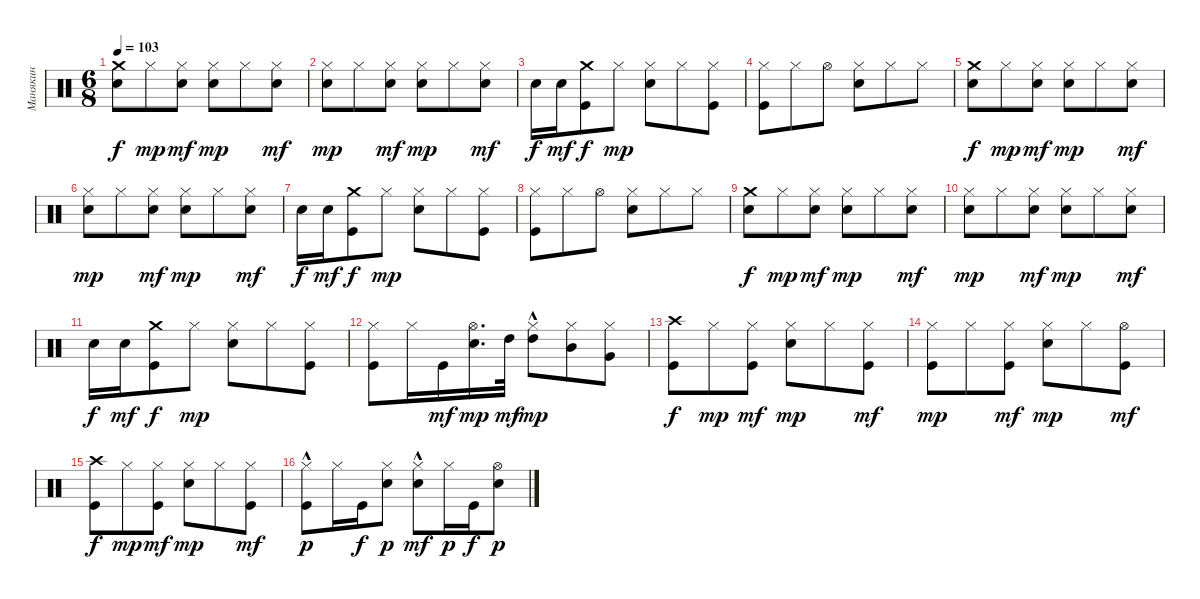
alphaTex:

\track ("Манякин" "Манякин") {instrument percussion}
\staff {score}
\articulation defaults
\ts (6 8)
\tempo 103
\clef neutral
\ks c
("Crash medium (hit)" "Electric Snare (hit)").8{dy f} "Hi-Hat (closed)".8{dy mp} ("Hi-Hat (closed)" "Electric Snare (hit)").8{dy mf} ("Hi-Hat (closed)" "Electric Snare (hit)").8{dy mp} "Hi-Hat (closed)".8 ("Hi-Hat (closed)" "Electric Snare (hit)").8{dy mf} |
("Hi-Hat (closed)" "Electric Snare (hit)").8{dy mp} "Hi-Hat (closed)".8 ("Hi-Hat (closed)" "Electric Snare (hit)").8{dy mf} ("Hi-Hat (closed)" "Electric Snare (hit)").8{dy mp} "Hi-Hat (closed)".8 ("Hi-Hat (closed)" "Electric Snare (hit)").8{dy mf} |
"Electric Snare (hit)".16{dy f} "Electric Snare (hit)".16{dy mf} ("Crash medium (hit)" "Kick (hit)").8{dy f} "Hi-Hat (closed)".8{dy mp} ("Hi-Hat (closed)" "Electric Snare (hit)").8 "Hi-Hat (closed)".8 ("Hi-Hat (closed)" "Kick (hit)").8 |
("Hi-Hat (closed)" "Kick (hit)").8 "Hi-Hat (closed)".8 "Hi-Hat (open)".8 ("Hi-Hat (closed)" "Electric Snare (hit)").8 "Hi-Hat (closed)".8 "Hi-Hat (closed)".8 |
("Crash medium (hit)" "Electric Snare (hit)").8{dy f} "Hi-Hat (closed)".8{dy mp} ("Hi-Hat (closed)" "Electric Snare (hit)").8{dy mf} ("Hi-Hat (closed)" "Electric Snare (hit)").8{dy mp} "Hi-Hat (closed)".8 ("Hi-Hat (closed)" "Electric Snare (hit)").8{dy mf} |
("Hi-Hat (closed)" "Electric Snare (hit)").8{dy mp} "Hi-Hat (closed)".8 ("Hi-Hat (closed)" "Electric Snare (hit)").8{dy mf} ("Hi-Hat (closed)" "Electric Snare (hit)").8{dy mp} "Hi-Hat (closed)".8 ("Hi-Hat (closed)" "Electric Snare (hit)").8{dy mf} |
"Electric Snare (hit)".16{dy f} "Electric Snare (hit)".16{dy mf} ("Crash medium (hit)" "Kick (hit)").8{dy f} "Hi-Hat (closed)".8{dy mp} ("Hi-Hat (closed)" "Electric Snare (hit)").8 "Hi-Hat (closed)".8 ("Hi-Hat (closed)" "Kick (hit)").8 |
("Hi-Hat (closed)" "Kick (hit)").8 "Hi-Hat (closed)".8 "Hi-Hat (open)".8 ("Hi-Hat (closed)" "Electric Snare (hit)").8 "Hi-Hat (closed)".8 "Hi-Hat (closed)".8 |
("Crash medium (hit)" "Electric Snare (hit)").8{dy f} "Hi-Hat (closed)".8{dy mp} ("Hi-Hat (closed)" "Electric Snare (hit)").8{dy mf} ("Hi-Hat (closed)" "Electric Snare (hit)").8{dy mp} "Hi-Hat (closed)".8 ("Hi-Hat (closed)" "Electric Snare (hit)").8{dy mf} |
("Hi-Hat (closed)" "Electric Snare (hit)").8{dy mp} "Hi-Hat (closed)".8 ("Hi-Hat (closed)" "Electric Snare (hit)").8{dy mf} ("Hi-Hat (closed)" "Electric Snare (hit)").8{dy mp} "Hi-Hat (closed)".8 ("Hi-Hat (closed)" "Electric Snare (hit)").8{dy mf} |
"Electric Snare (hit)".16{dy f} "Electric Snare (hit)".16{dy mf} ("Crash medium (hit)" "Kick (hit)").8{dy f} "Hi-Hat (closed)".8{dy mp} ("Hi-Hat (closed)" "Electric Snare (hit)").8 "Hi-Hat (closed)".8 ("Hi-Hat (closed)" "Kick (hit)").8 |
("Kick (hit)" "Hi-Hat (closed)").8 "Hi-Hat (closed)".16 "Kick (hit)".16{dy mf} ("Electric Snare (hit)" "Hi-Hat (open)").16{d dy mp} "High Tom (hit)".32{dy mf} ("High Tom (hit)"{hac} "Hi-Hat (closed)").8{dy mp} ("Mid Tom (hit)" "Hi-Hat (closed)").8 ("Very Low Tom (hit)" "Hi-Hat (closed)").8 |
("Crash high (hit)" "Kick (hit)").8{dy f} "Hi-Hat (closed)".8{dy mp} ("Hi-Hat (closed)" "Kick (hit)").8{dy mf} ("Hi-Hat (closed)" "Electric Snare (hit)").8{dy mp} "Hi-Hat (closed)".8 ("Hi-Hat (closed)" "Kick (hit)").8{dy mf} |
("Hi-Hat (closed)" "Kick (hit)").8{dy mp} "Hi-Hat (closed)".8 ("Hi-Hat (closed)" "Kick (hit)").8{dy mf} ("Hi-Hat (closed)" "Electric Snare (hit)").8{dy mp} "Hi-Hat (closed)".8 ("Hi-Hat (open)" "Kick (hit)").8{dy mf} |
("Crash high (hit)" "Kick (hit)").8{dy f} "Hi-Hat (closed)".8{dy mp} ("Hi-Hat (closed)" "Kick (hit)").8{dy mf} ("Hi-Hat (closed)" "Electric Snare (hit)").8{dy mp} "Hi-Hat (closed)".8 ("Hi-Hat (closed)" "Kick (hit)").8{dy mf} |
("Hi-Hat (closed)" "Kick (hit)"{hac}).8{dy p} "Hi-Hat (closed)".16 "Kick (hit)".16{dy f} ("Hi-Hat (closed)" "Electric Snare (hit)").8{dy p} ("Hi-Hat (closed)" "Electric Snare (hit)"{hac}).8{dy mf} "Hi-Hat (closed)".16{dy p} "Kick (hit)".16{dy f} ("Hi-Hat (open)" "Electric Snare (hit)").8{dy p}
